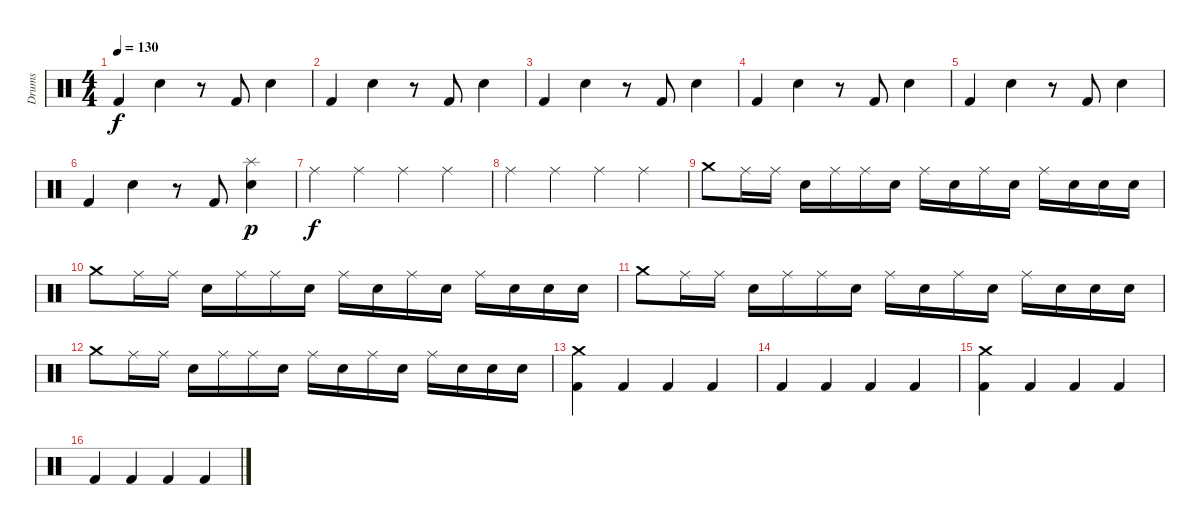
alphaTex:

\track ("Drums" "Drums") {instrument percussion}
\staff {score}
\articulation defaults
\ts (4 4)
\tempo 130
\clef neutral
\ks c "Kick (hit) 2".4{dy f} "Snare (hit) 2".4
r.8 "Kick (hit) 2".8 "Snare (hit) 2".4 |
"Kick (hit) 2".4 "Snare (hit) 2".4 r.8 "Kick (hit) 2".8 "Snare (hit) 2".4 |
"Kick (hit) 2".4 "Snare (hit) 2".4 r.8 "Kick (hit) 2".8 "Snare (hit) 2".4 |
"Kick (hit) 2".4 "Snare (hit) 2".4 r.8 "Kick (hit) 2".8 "Snare (hit) 2".4 |
"Kick (hit) 2".4 "Snare (hit) 2".4 r.8 "Kick (hit) 2".8 "Snare (hit) 2".4 |
"Kick (hit) 2".4 "Snare (hit) 2".4 r.8 "Kick (hit) 2".8 ("Snare (hit) 2" "Splash (hit)").4{dy p} |
"Ride (middle)".4{dy f} "Ride (middle)".4 "Ride (middle)".4 "Ride (middle)".4 |
"Ride (middle)".4 "Ride (middle)".4 "Ride (middle)".4 "Ride (middle)".4 |
"Crash medium (hit)".8 "Ride (middle)".16 "Ride (middle)".16 "Snare (hit)".16 "Ride (middle)".16 "Ride (middle)".16 "Snare (hit)".16 "Ride (middle)".16 "Snare (hit)".16 "Ride (middle)".16 "Snare (hit)".16 "Ride (middle)".16 "Snare (hit)".16 "Snare (hit)".16 "Snare (hit)".16 |
"Crash medium (hit)".8 "Ride (middle)".16 "Ride (middle)".16 "Snare (hit)".16 "Ride (middle)".16 "Ride (middle)".16 "Snare (hit)".16 "Ride (middle)".16 "Snare (hit)".16 "Ride (middle)".16 "Snare (hit)".16 "Ride (middle)".16 "Snare (hit)".16 "Snare (hit)".16 "Snare (hit)".16 |
"Crash medium (hit)".8 "Ride (middle)".16 "Ride (middle)".16 "Snare (hit)".16 "Ride (middle)".16 "Ride (middle)".16 "Snare (hit)".16 "Ride (middle)".16 "Snare (hit)".16 "Ride (middle)".16 "Snare (hit)".16 "Ride (middle)".16 "Snare (hit)".16 "Snare (hit)".16 "Snare (hit)".16 |
"Crash medium (hit)".8 "Ride (middle)".16 "Ride (middle)".16 "Snare (hit)".16 "Ride (middle)".16 "Ride (middle)".16 "Snare (hit)".16 "Ride (middle)".16 "Snare (hit)".16 "Ride (middle)".16 "Snare (hit)".16 "Ride (middle)".16 "Snare (hit)".16 "Snare (hit)".16 "Snare (hit)".16 |
("Kick (hit) 2" "Crash medium (hit)").4 "Kick (hit) 2".4 "Kick (hit) 2".4 "Kick (hit) 2".4 |
"Kick (hit) 2".4 "Kick (hit) 2".4 "Kick (hit) 2".4 "Kick (hit) 2".4 |
("Kick (hit) 2" "Crash medium (hit)").4 "Kick (hit) 2".4 "Kick (hit) 2".4 "Kick (hit) 2".4 |
"Kick (hit) 2".4 "Kick (hit) 2".4 "Kick (hit) 2".4 "Kick (hit) 2".4
